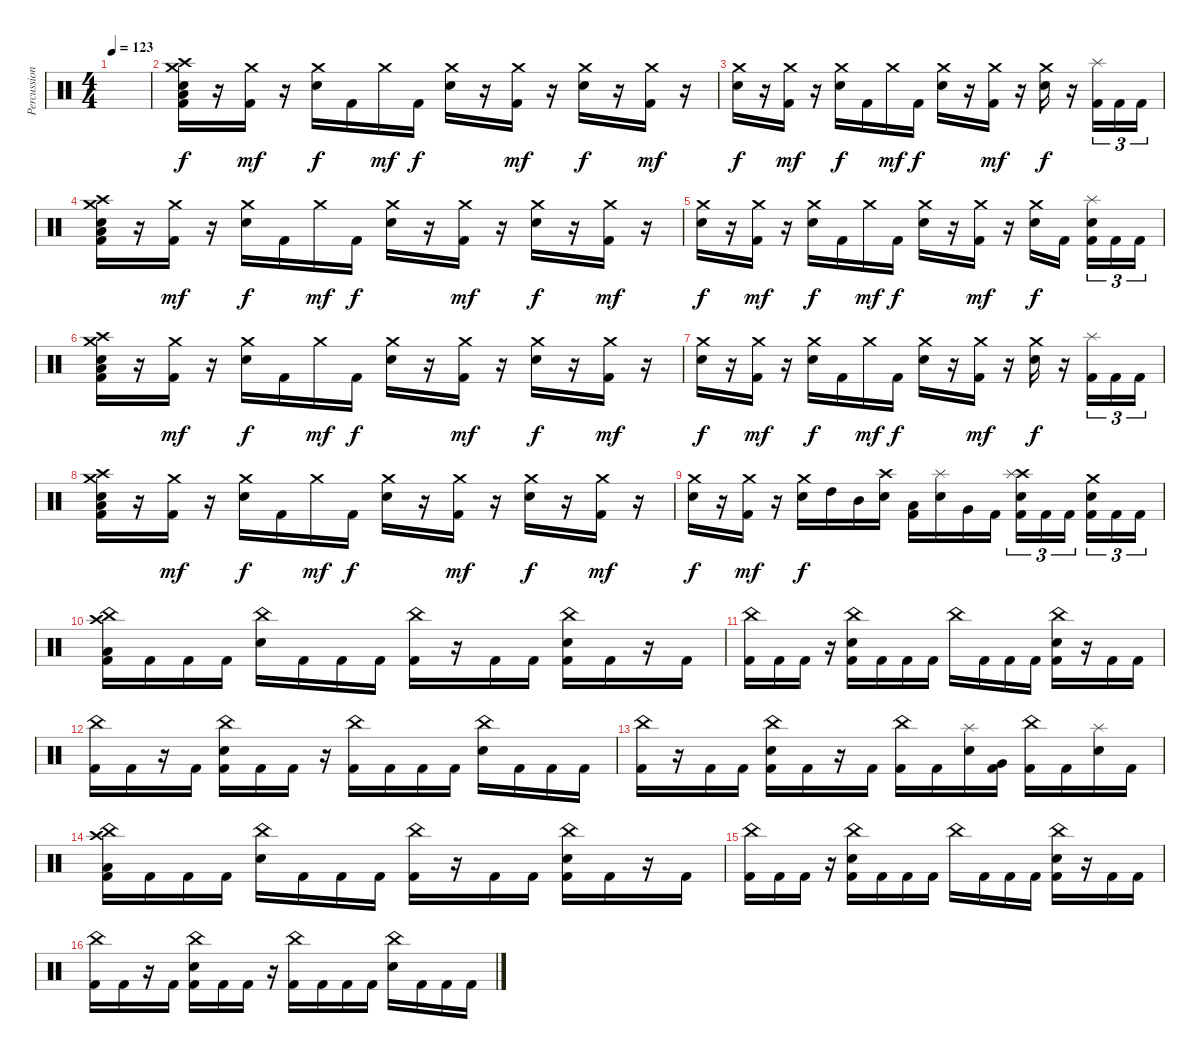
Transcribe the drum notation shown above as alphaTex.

\track ("Percussion" "Percussion") {instrument percussion}
\staff {score}
\articulation defaults
\ts (4 4)
\tempo 123
\clef neutral
\ks c
|
("Crash medium (hit)" "Crash high (hit)" "Electric Snare (hit)" "Low Floor Tom (hit)" "Kick (hit) 2").16 r.16 ("Crash medium (hit)" "Kick (hit) 2").16{dy mf} r.16 ("Crash medium (hit)" "Electric Snare (hit)").16{dy f} "Kick (hit) 2".16 "Crash medium (hit)".16{dy mf} "Kick (hit) 2".16{dy f} ("Crash medium (hit)" "Electric Snare (hit)").16 r.16 ("Crash medium (hit)" "Kick (hit) 2").16{dy mf} r.16 ("Crash medium (hit)" "Electric Snare (hit)").16{dy f} r.16 ("Crash medium (hit)" "Kick (hit) 2").16{dy mf} r.16 |
("Crash medium (hit)" "Electric Snare (hit)").16{dy f} r.16 ("Crash medium (hit)" "Kick (hit) 2").16{dy mf} r.16 ("Crash medium (hit)" "Electric Snare (hit)").16{dy f} "Kick (hit) 2".16 "Crash medium (hit)".16{dy mf} "Kick (hit) 2".16{dy f} ("Crash medium (hit)" "Electric Snare (hit)").16 r.16 ("Crash medium (hit)" "Kick (hit) 2").16{dy mf} r.16 ("Crash medium (hit)" "Electric Snare (hit)").16{dy f} r.16 ("Splash (hit)" "Kick (hit) 2").16{tu (3 2)} "Kick (hit) 2".16{tu (3 2)} "Kick (hit) 2".16{tu (3 2)} |
("Crash medium (hit)" "Crash high (hit)" "Electric Snare (hit)" "Low Floor Tom (hit)" "Kick (hit) 2").16 r.16 ("Crash medium (hit)" "Kick (hit) 2").16{dy mf} r.16 ("Crash medium (hit)" "Electric Snare (hit)").16{dy f} "Kick (hit) 2".16 "Crash medium (hit)".16{dy mf} "Kick (hit) 2".16{dy f} ("Crash medium (hit)" "Electric Snare (hit)").16 r.16 ("Crash medium (hit)" "Kick (hit) 2").16{dy mf} r.16 ("Crash medium (hit)" "Electric Snare (hit)").16{dy f} r.16 ("Crash medium (hit)" "Kick (hit) 2").16{dy mf} r.16 |
("Crash medium (hit)" "Electric Snare (hit)").16{dy f} r.16 ("Crash medium (hit)" "Kick (hit) 2").16{dy mf} r.16 ("Crash medium (hit)" "Electric Snare (hit)").16{dy f} "Kick (hit) 2".16 "Crash medium (hit)".16{dy mf} "Kick (hit) 2".16{dy f} ("Crash medium (hit)" "Electric Snare (hit)").16 r.16 ("Crash medium (hit)" "Kick (hit) 2").16{dy mf} r.16 ("Crash medium (hit)" "Electric Snare (hit)").16{dy f} "Kick (hit) 2".16 ("Splash (hit)" "Electric Snare (hit)" "Kick (hit) 2").16{tu (3 2)} "Kick (hit) 2".16{tu (3 2)} "Kick (hit) 2".16{tu (3 2)} |
("Crash medium (hit)" "Crash high (hit)" "Electric Snare (hit)" "Low Floor Tom (hit)" "Kick (hit) 2").16 r.16 ("Crash medium (hit)" "Kick (hit) 2").16{dy mf} r.16 ("Crash medium (hit)" "Electric Snare (hit)").16{dy f} "Kick (hit) 2".16 "Crash medium (hit)".16{dy mf} "Kick (hit) 2".16{dy f} ("Crash medium (hit)" "Electric Snare (hit)").16 r.16 ("Crash medium (hit)" "Kick (hit) 2").16{dy mf} r.16 ("Crash medium (hit)" "Electric Snare (hit)").16{dy f} r.16 ("Crash medium (hit)" "Kick (hit) 2").16{dy mf} r.16 |
("Crash medium (hit)" "Electric Snare (hit)").16{dy f} r.16 ("Crash medium (hit)" "Kick (hit) 2").16{dy mf} r.16 ("Crash medium (hit)" "Electric Snare (hit)").16{dy f} "Kick (hit) 2".16 "Crash medium (hit)".16{dy mf} "Kick (hit) 2".16{dy f} ("Crash medium (hit)" "Electric Snare (hit)").16 r.16 ("Crash medium (hit)" "Kick (hit) 2").16{dy mf} r.16 ("Crash medium (hit)" "Electric Snare (hit)").16{dy f} r.16 ("Splash (hit)" "Kick (hit) 2").16{tu (3 2)} "Kick (hit) 2".16{tu (3 2)} "Kick (hit) 2".16{tu (3 2)} |
("Crash medium (hit)" "Crash high (hit)" "Electric Snare (hit)" "Low Floor Tom (hit)" "Kick (hit) 2").16 r.16 ("Crash medium (hit)" "Kick (hit) 2").16{dy mf} r.16 ("Crash medium (hit)" "Electric Snare (hit)").16{dy f} "Kick (hit) 2".16 "Crash medium (hit)".16{dy mf} "Kick (hit) 2".16{dy f} ("Crash medium (hit)" "Electric Snare (hit)").16 r.16 ("Crash medium (hit)" "Kick (hit) 2").16{dy mf} r.16 ("Crash medium (hit)" "Electric Snare (hit)").16{dy f} r.16 ("Crash medium (hit)" "Kick (hit) 2").16{dy mf} r.16 |
("Crash medium (hit)" "Electric Snare (hit)").16{dy f} r.16 ("Crash medium (hit)" "Kick (hit) 2").16{dy mf} r.16 ("Crash medium (hit)" "Electric Snare (hit)").16{dy f} "High Tom (hit)".16 "Mid Tom (hit)".16 ("Crash high (hit)" "Electric Snare (hit)").16 ("Low Tom (hit)" "Kick (hit) 2").16 ("Splash (hit)" "Electric Snare (hit)").16 "Very Low Tom (hit)".16 "Kick (hit) 2".16 ("Crash high (hit)" "Splash (hit)" "Electric Snare (hit)" "Kick (hit) 2").16{tu (3 2)} "Kick (hit) 2".16{tu (3 2)} "Kick (hit) 2".16{tu (3 2)} ("Crash medium (hit)" "Electric Snare (hit)" "Kick (hit) 2").16{tu (3 2)} "Kick (hit) 2".16{tu (3 2)} "Kick (hit) 2".16{tu (3 2)} |
("Crash high (hit)" "China (hit)" "Low Floor Tom (hit)" "Kick (hit) 2").16 "Kick (hit) 2".16 "Kick (hit) 2".16 "Kick (hit) 2".16 ("China (hit)" "Electric Snare (hit)").16 "Kick (hit) 2".16 "Kick (hit) 2".16 "Kick (hit) 2".16 ("China (hit)" "Kick (hit) 2").16 r.16 "Kick (hit) 2".16 "Kick (hit) 2".16 ("China (hit)" "Electric Snare (hit)" "Kick (hit) 2").16 "Kick (hit) 2".16 r.16 "Kick (hit) 2".16 |
("China (hit)" "Kick (hit) 2").16 "Kick (hit) 2".16 "Kick (hit) 2".16 r.16 ("China (hit)" "Electric Snare (hit)" "Kick (hit) 2").16 "Kick (hit) 2".16 "Kick (hit) 2".16 "Kick (hit) 2".16 "China (hit)".16 "Kick (hit) 2".16 "Kick (hit) 2".16 "Kick (hit) 2".16 ("China (hit)" "Electric Snare (hit)" "Kick (hit) 2").16 r.16 "Kick (hit) 2".16 "Kick (hit) 2".16 |
("China (hit)" "Kick (hit) 2").16 "Kick (hit) 2".16 r.16 "Kick (hit) 2".16 ("China (hit)" "Electric Snare (hit)" "Kick (hit) 2").16 "Kick (hit) 2".16 "Kick (hit) 2".16 r.16 ("China (hit)" "Kick (hit) 2").16 "Kick (hit) 2".16 "Kick (hit) 2".16 "Kick (hit) 2".16 ("China (hit)" "Electric Snare (hit)").16 "Kick (hit) 2".16 "Kick (hit) 2".16 "Kick (hit) 2".16 |
("China (hit)" "Kick (hit) 2").16 r.16 "Kick (hit) 2".16 "Kick (hit) 2".16 ("China (hit)" "Electric Snare (hit)" "Kick (hit) 2").16 "Kick (hit) 2".16 r.16 "Kick (hit) 2".16 ("China (hit)" "Kick (hit) 2").16 "Kick (hit) 2".16 ("Splash (hit)" "Electric Snare (hit)").16 ("Very Low Tom (hit)" "Kick (hit) 2").16 ("China (hit)" "Kick (hit) 2").16 "Kick (hit) 2".16 ("Splash (hit)" "Electric Snare (hit)").16 "Kick (hit) 2".16 |
("Crash high (hit)" "China (hit)" "Low Floor Tom (hit)" "Kick (hit) 2").16 "Kick (hit) 2".16 "Kick (hit) 2".16 "Kick (hit) 2".16 ("China (hit)" "Electric Snare (hit)").16 "Kick (hit) 2".16 "Kick (hit) 2".16 "Kick (hit) 2".16 ("China (hit)" "Kick (hit) 2").16 r.16 "Kick (hit) 2".16 "Kick (hit) 2".16 ("China (hit)" "Electric Snare (hit)" "Kick (hit) 2").16 "Kick (hit) 2".16 r.16 "Kick (hit) 2".16 |
("China (hit)" "Kick (hit) 2").16 "Kick (hit) 2".16 "Kick (hit) 2".16 r.16 ("China (hit)" "Electric Snare (hit)" "Kick (hit) 2").16 "Kick (hit) 2".16 "Kick (hit) 2".16 "Kick (hit) 2".16 "China (hit)".16 "Kick (hit) 2".16 "Kick (hit) 2".16 "Kick (hit) 2".16 ("China (hit)" "Electric Snare (hit)" "Kick (hit) 2").16 r.16 "Kick (hit) 2".16 "Kick (hit) 2".16 |
("China (hit)" "Kick (hit) 2").16 "Kick (hit) 2".16 r.16 "Kick (hit) 2".16 ("China (hit)" "Electric Snare (hit)" "Kick (hit) 2").16 "Kick (hit) 2".16 "Kick (hit) 2".16 r.16 ("China (hit)" "Kick (hit) 2").16 "Kick (hit) 2".16 "Kick (hit) 2".16 "Kick (hit) 2".16 ("China (hit)" "Electric Snare (hit)").16 "Kick (hit) 2".16 "Kick (hit) 2".16 "Kick (hit) 2".16
